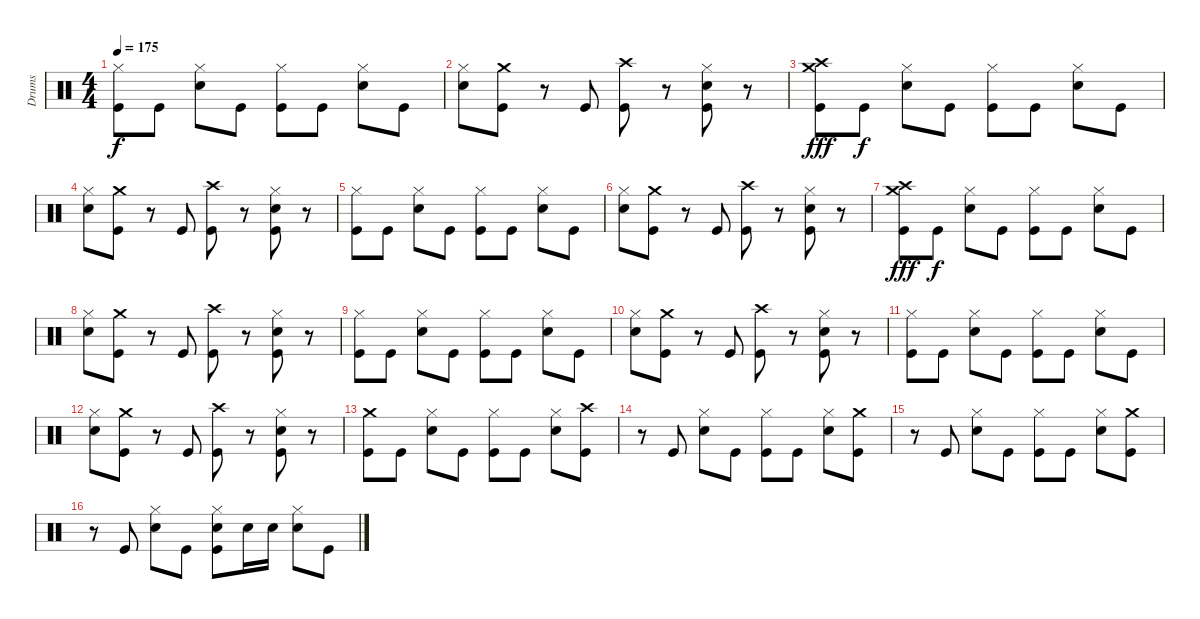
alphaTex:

\track ("Drums" "Drums") {instrument percussion}
\staff {score}
\articulation defaults
\ts (4 4)
\tempo 175
\clef neutral
\ks c
("Hi-Hat (closed)" "Kick (hit)").8{dy f} "Kick (hit)".8 ("Hi-Hat (closed)" "Electric Snare (hit)").8 "Kick (hit)".8 ("Hi-Hat (closed)" "Kick (hit)").8 "Kick (hit)".8 ("Hi-Hat (closed)" "Electric Snare (hit)").8 "Kick (hit)".8 |
("Electric Snare (hit)" "Hi-Hat (closed)").8 ("Crash medium (hit)" "Kick (hit)").8 r.8 "Kick (hit)".8 ("Crash high (hit)" "Kick (hit)").8 r.8 ("Hi-Hat (closed)" "Snare (hit) 2" "Kick (hit)").8 r.8 |
("Crash high (hit)" "Crash medium (hit)" "Kick (hit)").8{dy fff} "Kick (hit)".8{dy f} ("Hi-Hat (closed)" "Electric Snare (hit)").8 "Kick (hit)".8 ("Hi-Hat (closed)" "Kick (hit)").8 "Kick (hit)".8 ("Hi-Hat (closed)" "Electric Snare (hit)").8 "Kick (hit)".8 |
("Electric Snare (hit)" "Hi-Hat (closed)").8 ("Crash medium (hit)" "Kick (hit)").8 r.8 "Kick (hit)".8 ("Crash high (hit)" "Kick (hit)").8 r.8 ("Hi-Hat (closed)" "Snare (hit) 2" "Kick (hit)").8 r.8 |
("Hi-Hat (closed)" "Kick (hit)").8 "Kick (hit)".8 ("Hi-Hat (closed)" "Electric Snare (hit)").8 "Kick (hit)".8 ("Hi-Hat (closed)" "Kick (hit)").8 "Kick (hit)".8 ("Hi-Hat (closed)" "Electric Snare (hit)").8 "Kick (hit)".8 |
("Electric Snare (hit)" "Hi-Hat (closed)").8 ("Crash medium (hit)" "Kick (hit)").8 r.8 "Kick (hit)".8 ("Crash high (hit)" "Kick (hit)").8 r.8 ("Hi-Hat (closed)" "Snare (hit) 2" "Kick (hit)").8 r.8 |
("Crash high (hit)" "Crash medium (hit)" "Kick (hit)").8{dy fff} "Kick (hit)".8{dy f} ("Hi-Hat (closed)" "Electric Snare (hit)").8 "Kick (hit)".8 ("Hi-Hat (closed)" "Kick (hit)").8 "Kick (hit)".8 ("Hi-Hat (closed)" "Electric Snare (hit)").8 "Kick (hit)".8 |
("Electric Snare (hit)" "Hi-Hat (closed)").8 ("Crash medium (hit)" "Kick (hit)").8 r.8 "Kick (hit)".8 ("Crash high (hit)" "Kick (hit)").8 r.8 ("Hi-Hat (closed)" "Snare (hit) 2" "Kick (hit)").8 r.8 |
("Hi-Hat (closed)" "Kick (hit)").8 "Kick (hit)".8 ("Hi-Hat (closed)" "Electric Snare (hit)").8 "Kick (hit)".8 ("Hi-Hat (closed)" "Kick (hit)").8 "Kick (hit)".8 ("Hi-Hat (closed)" "Electric Snare (hit)").8 "Kick (hit)".8 |
("Electric Snare (hit)" "Hi-Hat (closed)").8 ("Crash medium (hit)" "Kick (hit)").8 r.8 "Kick (hit)".8 ("Crash high (hit)" "Kick (hit)").8 r.8 ("Hi-Hat (closed)" "Snare (hit) 2" "Kick (hit)").8 r.8 |
("Hi-Hat (closed)" "Kick (hit)").8 "Kick (hit)".8 ("Hi-Hat (closed)" "Electric Snare (hit)").8 "Kick (hit)".8 ("Hi-Hat (closed)" "Kick (hit)").8 "Kick (hit)".8 ("Hi-Hat (closed)" "Electric Snare (hit)").8 "Kick (hit)".8 |
("Electric Snare (hit)" "Hi-Hat (closed)").8 ("Crash medium (hit)" "Kick (hit)").8 r.8 "Kick (hit)".8 ("Crash high (hit)" "Kick (hit)").8 r.8 ("Hi-Hat (closed)" "Snare (hit) 2" "Kick (hit)").8 r.8 |
("Crash medium (hit)" "Kick (hit)").8 "Kick (hit)".8 ("Hi-Hat (closed)" "Electric Snare (hit)").8 "Kick (hit)".8 ("Hi-Hat (closed)" "Kick (hit)").8 "Kick (hit)".8 ("Hi-Hat (closed)" "Electric Snare (hit)").8 ("Crash high (hit)" "Kick (hit)").8 |
r.8 "Kick (hit)".8 ("Hi-Hat (closed)" "Electric Snare (hit)").8 "Kick (hit)".8 ("Hi-Hat (closed)" "Kick (hit)").8 "Kick (hit)".8 ("Hi-Hat (closed)" "Electric Snare (hit)").8 ("Crash medium (hit)" "Kick (hit)").8 |
r.8 "Kick (hit)".8 ("Hi-Hat (closed)" "Electric Snare (hit)").8 "Kick (hit)".8 ("Hi-Hat (closed)" "Kick (hit)").8 "Kick (hit)".8 ("Hi-Hat (closed)" "Electric Snare (hit)").8 ("Crash medium (hit)" "Kick (hit)").8 |
r.8 "Kick (hit)".8 ("Hi-Hat (closed)" "Electric Snare (hit)").8 "Kick (hit)".8 ("Hi-Hat (closed)" "Electric Snare (hit)" "Kick (hit)").8 "Snare (hit) 2".16 "Snare (hit) 2".16 ("Hi-Hat (closed)" "Snare (hit) 2").8 "Kick (hit)".8
